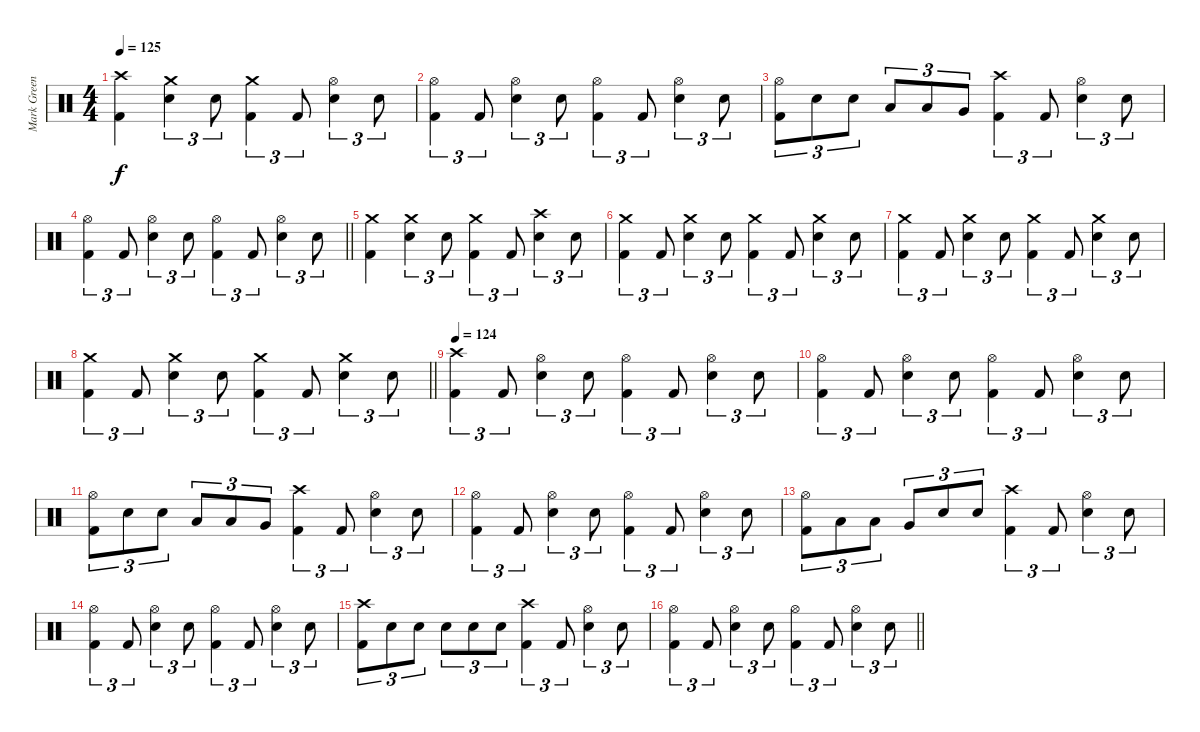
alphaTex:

\track ("Mark Greening" "Mark Green") {instrument percussion}
\staff {score}
\articulation defaults
\ts (4 4)
\section ("" "")
\tempo 125
\clef neutral
\ks c
("Crash high (hit)" "Kick (hit) 2").4{dy f} ("Crash medium (hit)" "Electric Snare (hit)").4{tu (3 2)} "Electric Snare (hit)".8{tu (3 2)} ("Crash medium (hit)" "Kick (hit) 2").4{tu (3 2)} "Kick (hit) 2".8{tu (3 2)} ("Hi-Hat (open)" "Electric Snare (hit)").4{tu (3 2)} "Electric Snare (hit)".8{tu (3 2)} |
("Hi-Hat (open)" "Kick (hit) 2").4{tu (3 2)} "Kick (hit) 2".8{tu (3 2)} ("Hi-Hat (open)" "Electric Snare (hit)").4{tu (3 2)} "Electric Snare (hit)".8{tu (3 2)} ("Hi-Hat (open)" "Kick (hit) 2").4{tu (3 2)} "Kick (hit) 2".8{tu (3 2)} ("Hi-Hat (open)" "Electric Snare (hit)").4{tu (3 2)} "Electric Snare (hit)".8{tu (3 2)} |
("Hi-Hat (open)" "Kick (hit) 2").8{tu (3 2)} "Electric Snare (hit)".8{tu (3 2)} "Electric Snare (hit)".8{tu (3 2)} "Low Tom (hit)".8{tu (3 2)} "Low Tom (hit)".8{tu (3 2)} "Very Low Tom (hit)".8{tu (3 2)} ("Crash high (hit)" "Kick (hit) 2").4{tu (3 2)} "Kick (hit) 2".8{tu (3 2)} ("Hi-Hat (open)" "Electric Snare (hit)").4{tu (3 2)} "Electric Snare (hit)".8{tu (3 2)} |
\barLineRight lightlight
("Hi-Hat (open)" "Kick (hit) 2").4{tu (3 2)} "Kick (hit) 2".8{tu (3 2)} ("Hi-Hat (open)" "Electric Snare (hit)").4{tu (3 2)} "Electric Snare (hit)".8{tu (3 2)} ("Hi-Hat (open)" "Kick (hit) 2").4{tu (3 2)} "Kick (hit) 2".8{tu (3 2)} ("Hi-Hat (open)" "Electric Snare (hit)").4{tu (3 2)} "Electric Snare (hit)".8{tu (3 2)} |
("Crash medium (hit)" "Kick (hit) 2").4 ("Crash medium (hit)" "Electric Snare (hit)").4{tu (3 2)} "Electric Snare (hit)".8{tu (3 2)} ("Crash medium (hit)" "Kick (hit) 2").4{tu (3 2)} "Kick (hit) 2".8{tu (3 2)} ("Crash high (hit)" "Electric Snare (hit)").4{tu (3 2)} "Electric Snare (hit)".8{tu (3 2)} |
("Crash medium (hit)" "Kick (hit) 2").4{tu (3 2)} "Kick (hit) 2".8{tu (3 2)} ("Crash medium (hit)" "Electric Snare (hit)").4{tu (3 2)} "Electric Snare (hit)".8{tu (3 2)} ("Crash medium (hit)" "Kick (hit) 2").4{tu (3 2)} "Kick (hit) 2".8{tu (3 2)} ("Crash medium (hit)" "Electric Snare (hit)").4{tu (3 2)} "Electric Snare (hit)".8{tu (3 2)} |
("Crash medium (hit)" "Kick (hit) 2").4{tu (3 2)} "Kick (hit) 2".8{tu (3 2)} ("Crash medium (hit)" "Electric Snare (hit)").4{tu (3 2)} "Electric Snare (hit)".8{tu (3 2)} ("Crash medium (hit)" "Kick (hit) 2").4{tu (3 2)} "Kick (hit) 2".8{tu (3 2)} ("Crash medium (hit)" "Electric Snare (hit)").4{tu (3 2)} "Electric Snare (hit)".8{tu (3 2)} |
\barLineRight lightlight
("Crash medium (hit)" "Kick (hit) 2").4{tu (3 2)} "Kick (hit) 2".8{tu (3 2)} ("Crash medium (hit)" "Electric Snare (hit)").4{tu (3 2)} "Electric Snare (hit)".8{tu (3 2)} ("Crash medium (hit)" "Kick (hit) 2").4{tu (3 2)} "Kick (hit) 2".8{tu (3 2)} ("Crash medium (hit)" "Electric Snare (hit)").4{tu (3 2)} "Electric Snare (hit)".8{tu (3 2)} |
\section ("" "")
\tempo 124
("Crash high (hit)" "Kick (hit) 2").4{tu (3 2)} "Kick (hit) 2".8{tu (3 2)} ("Hi-Hat (open)" "Electric Snare (hit)").4{tu (3 2)} "Electric Snare (hit)".8{tu (3 2)} ("Hi-Hat (open)" "Kick (hit) 2").4{tu (3 2)} "Kick (hit) 2".8{tu (3 2)} ("Hi-Hat (open)" "Electric Snare (hit)").4{tu (3 2)} "Electric Snare (hit)".8{tu (3 2)} |
("Hi-Hat (open)" "Kick (hit) 2").4{tu (3 2)} "Kick (hit) 2".8{tu (3 2)} ("Hi-Hat (open)" "Electric Snare (hit)").4{tu (3 2)} "Electric Snare (hit)".8{tu (3 2)} ("Hi-Hat (open)" "Kick (hit) 2").4{tu (3 2)} "Kick (hit) 2".8{tu (3 2)} ("Hi-Hat (open)" "Electric Snare (hit)").4{tu (3 2)} "Electric Snare (hit)".8{tu (3 2)} |
("Hi-Hat (open)" "Kick (hit) 2").8{tu (3 2)} "Electric Snare (hit)".8{tu (3 2)} "Electric Snare (hit)".8{tu (3 2)} "Low Tom (hit)".8{tu (3 2)} "Low Tom (hit)".8{tu (3 2)} "Very Low Tom (hit)".8{tu (3 2)} ("Crash high (hit)" "Kick (hit) 2").4{tu (3 2)} "Kick (hit) 2".8{tu (3 2)} ("Hi-Hat (open)" "Electric Snare (hit)").4{tu (3 2)} "Electric Snare (hit)".8{tu (3 2)} |
("Hi-Hat (open)" "Kick (hit) 2").4{tu (3 2)} "Kick (hit) 2".8{tu (3 2)} ("Hi-Hat (open)" "Electric Snare (hit)").4{tu (3 2)} "Electric Snare (hit)".8{tu (3 2)} ("Hi-Hat (open)" "Kick (hit) 2").4{tu (3 2)} "Kick (hit) 2".8{tu (3 2)} ("Hi-Hat (open)" "Electric Snare (hit)").4{tu (3 2)} "Electric Snare (hit)".8{tu (3 2)} |
("Hi-Hat (open)" "Kick (hit) 2").8{tu (3 2)} "Low Tom (hit)".8{tu (3 2)} "Low Tom (hit)".8{tu (3 2)} "Very Low Tom (hit)".8{tu (3 2)} "Electric Snare (hit)".8{tu (3 2)} "Electric Snare (hit)".8{tu (3 2)} ("Crash high (hit)" "Kick (hit) 2").4{tu (3 2)} "Kick (hit) 2".8{tu (3 2)} ("Hi-Hat (open)" "Electric Snare (hit)").4{tu (3 2)} "Electric Snare (hit)".8{tu (3 2)} |
("Hi-Hat (open)" "Kick (hit) 2").4{tu (3 2)} "Kick (hit) 2".8{tu (3 2)} ("Hi-Hat (open)" "Electric Snare (hit)").4{tu (3 2)} "Electric Snare (hit)".8{tu (3 2)} ("Hi-Hat (open)" "Kick (hit) 2").4{tu (3 2)} "Kick (hit) 2".8{tu (3 2)} ("Hi-Hat (open)" "Electric Snare (hit)").4{tu (3 2)} "Electric Snare (hit)".8{tu (3 2)} |
("Crash high (hit)" "Kick (hit) 2").8{tu (3 2)} "Electric Snare (hit)".8{tu (3 2)} "Electric Snare (hit)".8{tu (3 2)} "Electric Snare (hit)".8{tu (3 2)} "Electric Snare (hit)".8{tu (3 2)} "Electric Snare (hit)".8{tu (3 2)} ("Crash high (hit)" "Kick (hit) 2").4{tu (3 2)} "Kick (hit) 2".8{tu (3 2)} ("Hi-Hat (open)" "Electric Snare (hit)").4{tu (3 2)} "Electric Snare (hit)".8{tu (3 2)} |
\barLineRight lightlight
("Hi-Hat (open)" "Kick (hit) 2").4{tu (3 2)} "Kick (hit) 2".8{tu (3 2)} ("Hi-Hat (open)" "Electric Snare (hit)").4{tu (3 2)} "Electric Snare (hit)".8{tu (3 2)} ("Hi-Hat (open)" "Kick (hit) 2").4{tu (3 2)} "Kick (hit) 2".8{tu (3 2)} ("Hi-Hat (open)" "Electric Snare (hit)").4{tu (3 2)} "Electric Snare (hit)".8{tu (3 2)}
